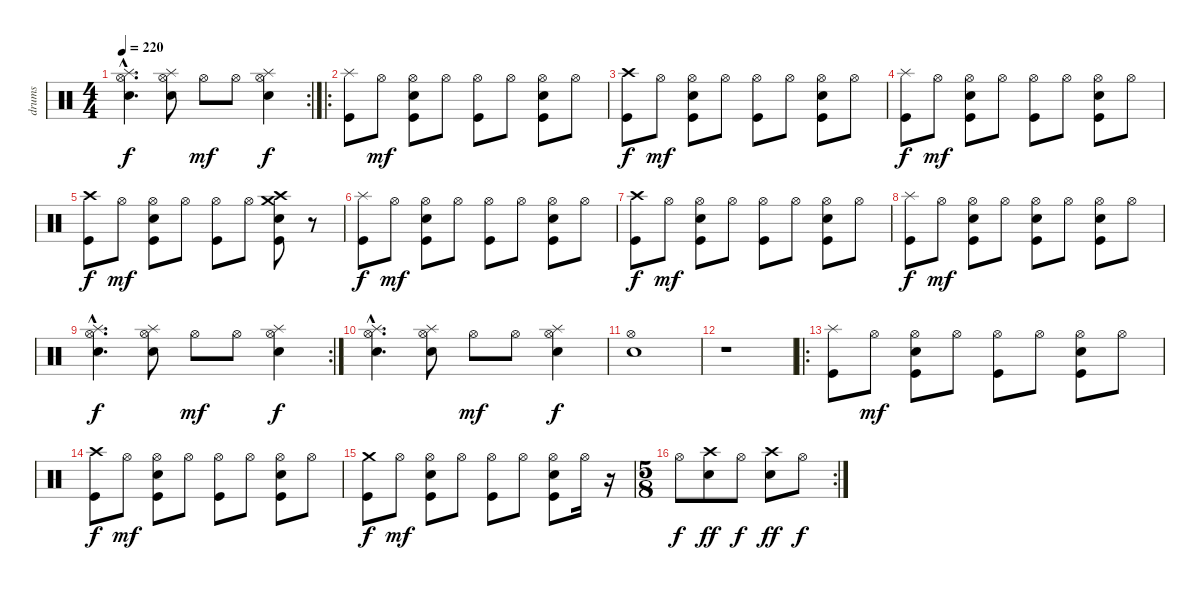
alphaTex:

\track ("drums" "drums") {instrument percussion}
\staff {score}
\articulation defaults
\rc 2
\ts (4 4)
\tempo 220
\clef neutral
\ks c
("Splash (hit)"{hac} "Hi-Hat (open)"{hac} "Snare (hit) 2"{hac}).4{d dy f} ("Splash (hit)" "Hi-Hat (open)" "Snare (hit) 2").8 "Hi-Hat (open)".8{dy mf} "Hi-Hat (open)".8 ("Splash (hit)" "Hi-Hat (open)" "Snare (hit) 2").4{dy f} |
\ro
("Splash (hit)" "Kick (hit)").8 "Hi-Hat (open)".8{dy mf} ("Hi-Hat (open)" "Snare (hit) 2" "Kick (hit)").8 "Hi-Hat (open)".8 ("Hi-Hat (open)" "Kick (hit)").8 "Hi-Hat (open)".8 ("Hi-Hat (open)" "Snare (hit) 2" "Kick (hit)").8 "Hi-Hat (open)".8 |
("Crash high (hit)" "Kick (hit)").8{dy f} "Hi-Hat (open)".8{dy mf} ("Hi-Hat (open)" "Snare (hit) 2" "Kick (hit)").8 "Hi-Hat (open)".8 ("Hi-Hat (open)" "Kick (hit)").8 "Hi-Hat (open)".8 ("Hi-Hat (open)" "Snare (hit) 2" "Kick (hit)").8 "Hi-Hat (open)".8 |
("Splash (hit)" "Kick (hit)").8{dy f} "Hi-Hat (open)".8{dy mf} ("Hi-Hat (open)" "Snare (hit) 2" "Kick (hit)").8 "Hi-Hat (open)".8 ("Hi-Hat (open)" "Kick (hit)").8 "Hi-Hat (open)".8 ("Hi-Hat (open)" "Snare (hit) 2" "Kick (hit)").8 "Hi-Hat (open)".8 |
("Crash high (hit)" "Kick (hit)").8{dy f} "Hi-Hat (open)".8{dy mf} ("Hi-Hat (open)" "Snare (hit) 2" "Kick (hit)").8 "Hi-Hat (open)".8 ("Hi-Hat (open)" "Kick (hit)").8 "Hi-Hat (open)".8 ("Crash high (hit)" "Crash medium (hit)" "Snare (hit) 2" "Kick (hit)").8 r.8 |
("Splash (hit)" "Kick (hit)").8{dy f} "Hi-Hat (open)".8{dy mf} ("Hi-Hat (open)" "Snare (hit) 2" "Kick (hit)").8 "Hi-Hat (open)".8 ("Hi-Hat (open)" "Kick (hit)").8 "Hi-Hat (open)".8 ("Hi-Hat (open)" "Snare (hit) 2" "Kick (hit)").8 "Hi-Hat (open)".8 |
("Crash high (hit)" "Kick (hit)").8{dy f} "Hi-Hat (open)".8{dy mf} ("Hi-Hat (open)" "Snare (hit) 2" "Kick (hit)").8 "Hi-Hat (open)".8 ("Hi-Hat (open)" "Kick (hit)").8 "Hi-Hat (open)".8 ("Hi-Hat (open)" "Snare (hit) 2" "Kick (hit)").8 "Hi-Hat (open)".8 |
("Splash (hit)" "Kick (hit)").8{dy f} "Hi-Hat (open)".8{dy mf} ("Hi-Hat (open)" "Snare (hit) 2" "Kick (hit)").8 "Hi-Hat (open)".8 ("Hi-Hat (open)" "Snare (hit) 2" "Kick (hit)").8 "Hi-Hat (open)".8 ("Hi-Hat (open)" "Snare (hit) 2" "Kick (hit)").8 "Hi-Hat (open)".8 |
\rc 2
("Splash (hit)"{hac} "Hi-Hat (open)"{hac} "Snare (hit) 2"{hac}).4{d dy f} ("Splash (hit)" "Hi-Hat (open)" "Snare (hit) 2").8 "Hi-Hat (open)".8{dy mf} "Hi-Hat (open)".8 ("Splash (hit)" "Hi-Hat (open)" "Snare (hit) 2").4{dy f} |
("Splash (hit)"{hac} "Hi-Hat (open)"{hac} "Snare (hit) 2"{hac}).4{d} ("Splash (hit)" "Hi-Hat (open)" "Snare (hit) 2").8 "Hi-Hat (open)".8{dy mf} "Hi-Hat (open)".8 ("Splash (hit)" "Hi-Hat (open)" "Snare (hit) 2").4{dy f} |
("Electric Snare (hit)" "Hi-Hat (open)").1 |
r.1 |
\ro
("Splash (hit)" "Kick (hit)").8 "Hi-Hat (open)".8{dy mf} ("Hi-Hat (open)" "Snare (hit) 2" "Kick (hit)").8 "Hi-Hat (open)".8 ("Hi-Hat (open)" "Kick (hit)").8 "Hi-Hat (open)".8 ("Hi-Hat (open)" "Snare (hit) 2" "Kick (hit)").8 "Hi-Hat (open)".8 |
("Crash high (hit)" "Kick (hit)").8{dy f} "Hi-Hat (open)".8{dy mf} ("Hi-Hat (open)" "Snare (hit) 2" "Kick (hit)").8 "Hi-Hat (open)".8 ("Hi-Hat (open)" "Kick (hit)").8 "Hi-Hat (open)".8 ("Hi-Hat (open)" "Snare (hit) 2" "Kick (hit)").8 "Hi-Hat (open)".8 |
("Crash medium (hit)" "Kick (hit)").8{dy f} "Hi-Hat (open)".8{dy mf} ("Hi-Hat (open)" "Snare (hit) 2" "Kick (hit)").8 "Hi-Hat (open)".8 ("Hi-Hat (open)" "Kick (hit)").8 "Hi-Hat (open)".8 ("Hi-Hat (open)" "Snare (hit) 2" "Kick (hit)").8 "Hi-Hat (open)".16 r.16 |
\rc 2
\ts (5 8)
"Hi-Hat (open)".8{dy f} ("Crash high (hit)" "Snare (hit) 2").8{dy ff} "Hi-Hat (open)".8{dy f} ("Crash high (hit)" "Snare (hit) 2").8{dy ff} "Hi-Hat (open)".8{dy f}
